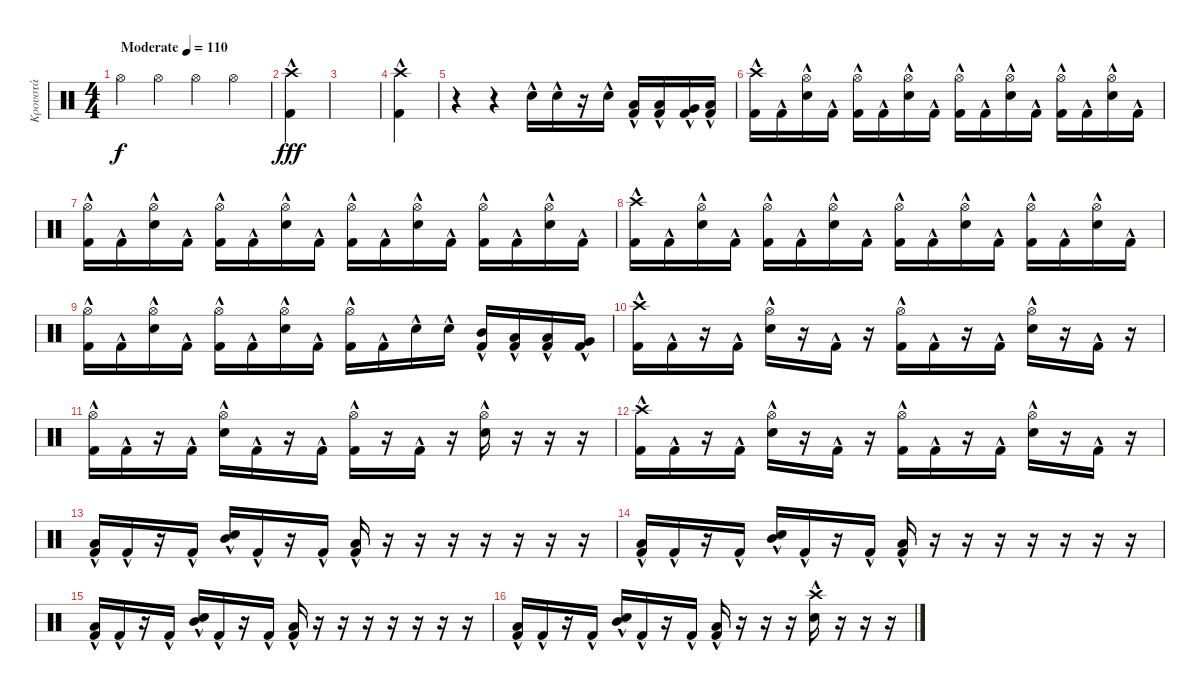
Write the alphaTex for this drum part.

\track ("Κρουστά" "Κρουστά") {instrument percussion}
\staff {score}
\articulation defaults
\ts (4 4)
\tempo (110 "Moderate")
\clef neutral
\ks c "Hi-Hat (open)".4{dy f} "Hi-Hat (open)".4 "Hi-Hat (open)".4 "Hi-Hat (open)".4
|
("Crash high (hit)" "Kick (hit) 2"{hac}).4{dy fff} |
|
("Crash high (hit)" "Kick (hit) 2"{hac}).4 |
r.4 r.4 "Electric Snare (hit)"{hac}.16 "Electric Snare (hit)"{hac}.16 r.16 "Electric Snare (hit)"{hac}.16 ("Low Tom (hit)" "Kick (hit) 2"{hac}).16 ("Low Tom (hit)" "Kick (hit) 2"{hac}).16 ("Very Low Tom (hit)" "Kick (hit) 2"{hac}).16 ("Low Floor Tom (hit)" "Kick (hit) 2"{hac}).16 |
("Crash high (hit)" "Kick (hit) 2"{hac}).16 "Kick (hit) 2"{hac}.16 ("Hi-Hat (open)" "Electric Snare (hit)"{hac}).16 "Kick (hit) 2"{hac}.16 ("Hi-Hat (open)" "Kick (hit) 2"{hac}).16 "Kick (hit) 2"{hac}.16 ("Hi-Hat (open)" "Electric Snare (hit)"{hac}).16 "Kick (hit) 2"{hac}.16 ("Hi-Hat (open)" "Kick (hit) 2"{hac}).16 "Kick (hit) 2"{hac}.16 ("Hi-Hat (open)" "Electric Snare (hit)"{hac}).16 "Kick (hit) 2"{hac}.16 ("Hi-Hat (open)" "Kick (hit) 2"{hac}).16 "Kick (hit) 2"{hac}.16 ("Hi-Hat (open)" "Electric Snare (hit)"{hac}).16 "Kick (hit) 2"{hac}.16 |
("Hi-Hat (open)" "Kick (hit) 2"{hac}).16 "Kick (hit) 2"{hac}.16 ("Hi-Hat (open)" "Electric Snare (hit)"{hac}).16 "Kick (hit) 2"{hac}.16 ("Hi-Hat (open)" "Kick (hit) 2"{hac}).16 "Kick (hit) 2"{hac}.16 ("Hi-Hat (open)" "Electric Snare (hit)"{hac}).16 "Kick (hit) 2"{hac}.16 ("Hi-Hat (open)" "Kick (hit) 2"{hac}).16 "Kick (hit) 2"{hac}.16 ("Hi-Hat (open)" "Electric Snare (hit)"{hac}).16 "Kick (hit) 2"{hac}.16 ("Hi-Hat (open)" "Kick (hit) 2"{hac}).16 "Kick (hit) 2"{hac}.16 ("Hi-Hat (open)" "Electric Snare (hit)"{hac}).16 "Kick (hit) 2"{hac}.16 |
("Crash high (hit)" "Kick (hit) 2"{hac}).16 "Kick (hit) 2"{hac}.16 ("Hi-Hat (open)" "Electric Snare (hit)"{hac}).16 "Kick (hit) 2"{hac}.16 ("Hi-Hat (open)" "Kick (hit) 2"{hac}).16 "Kick (hit) 2"{hac}.16 ("Hi-Hat (open)" "Electric Snare (hit)"{hac}).16 "Kick (hit) 2"{hac}.16 ("Hi-Hat (open)" "Kick (hit) 2"{hac}).16 "Kick (hit) 2"{hac}.16 ("Hi-Hat (open)" "Electric Snare (hit)"{hac}).16 "Kick (hit) 2"{hac}.16 ("Hi-Hat (open)" "Kick (hit) 2"{hac}).16 "Kick (hit) 2"{hac}.16 ("Hi-Hat (open)" "Electric Snare (hit)"{hac}).16 "Kick (hit) 2"{hac}.16 |
("Hi-Hat (open)" "Kick (hit) 2"{hac}).16 "Kick (hit) 2"{hac}.16 ("Hi-Hat (open)" "Electric Snare (hit)"{hac}).16 "Kick (hit) 2"{hac}.16 ("Hi-Hat (open)" "Kick (hit) 2"{hac}).16 "Kick (hit) 2"{hac}.16 ("Hi-Hat (open)" "Electric Snare (hit)"{hac}).16 "Kick (hit) 2"{hac}.16 ("Hi-Hat (open)" "Kick (hit) 2"{hac}).16 "Kick (hit) 2"{hac}.16 "Electric Snare (hit)"{hac}.16 "Electric Snare (hit)"{hac}.16 ("Mid Tom (hit)" "Kick (hit) 2"{hac}).16 ("Low Tom (hit)" "Kick (hit) 2"{hac}).16 ("Low Tom (hit)" "Kick (hit) 2"{hac}).16 ("Very Low Tom (hit)" "Kick (hit) 2"{hac}).16 |
("Crash high (hit)" "Kick (hit) 2"{hac}).16 "Kick (hit) 2"{hac}.16 r.16 "Kick (hit) 2"{hac}.16 ("Hi-Hat (open)" "Electric Snare (hit)"{hac}).16 r.16 "Kick (hit) 2"{hac}.16 r.16 ("Hi-Hat (open)" "Kick (hit) 2"{hac}).16 "Kick (hit) 2"{hac}.16 r.16 "Kick (hit) 2"{hac}.16 ("Hi-Hat (open)" "Electric Snare (hit)"{hac}).16 r.16 "Kick (hit) 2"{hac}.16 r.16 |
("Hi-Hat (open)" "Kick (hit) 2"{hac}).16 "Kick (hit) 2"{hac}.16 r.16 "Kick (hit) 2"{hac}.16 ("Hi-Hat (open)" "Electric Snare (hit)"{hac}).16 "Kick (hit) 2"{hac}.16 r.16 "Kick (hit) 2"{hac}.16 ("Hi-Hat (open)" "Kick (hit) 2"{hac}).16 r.16 "Kick (hit) 2"{hac}.16 r.16 ("Hi-Hat (open)" "Electric Snare (hit)"{hac}).16 r.16 r.16 r.16 |
("Crash high (hit)" "Kick (hit) 2"{hac}).16 "Kick (hit) 2"{hac}.16 r.16 "Kick (hit) 2"{hac}.16 ("Hi-Hat (open)" "Electric Snare (hit)"{hac}).16 r.16 "Kick (hit) 2"{hac}.16 r.16 ("Hi-Hat (open)" "Kick (hit) 2"{hac}).16 "Kick (hit) 2"{hac}.16 r.16 "Kick (hit) 2"{hac}.16 ("Hi-Hat (open)" "Electric Snare (hit)"{hac}).16 r.16 "Kick (hit) 2"{hac}.16 r.16 |
("Low Tom (hit)" "Kick (hit) 2"{hac}).16 "Kick (hit) 2"{hac}.16 r.16 "Kick (hit) 2"{hac}.16 ("Mid Tom (hit)" "Electric Snare (hit)"{hac}).16 "Kick (hit) 2"{hac}.16 r.16 "Kick (hit) 2"{hac}.16 ("Low Tom (hit)" "Kick (hit) 2"{hac}).16 r.16 r.16 r.16 r.16 r.16 r.16 r.16 |
("Low Tom (hit)" "Kick (hit) 2"{hac}).16 "Kick (hit) 2"{hac}.16 r.16 "Kick (hit) 2"{hac}.16 ("Mid Tom (hit)" "Electric Snare (hit)"{hac}).16 "Kick (hit) 2"{hac}.16 r.16 "Kick (hit) 2"{hac}.16 ("Low Tom (hit)" "Kick (hit) 2"{hac}).16 r.16 r.16 r.16 r.16 r.16 r.16 r.16 |
("Low Tom (hit)" "Kick (hit) 2"{hac}).16 "Kick (hit) 2"{hac}.16 r.16 "Kick (hit) 2"{hac}.16 ("Mid Tom (hit)" "Electric Snare (hit)"{hac}).16 "Kick (hit) 2"{hac}.16 r.16 "Kick (hit) 2"{hac}.16 ("Low Tom (hit)" "Kick (hit) 2"{hac}).16 r.16 r.16 r.16 r.16 r.16 r.16 r.16 |
("Low Tom (hit)" "Kick (hit) 2"{hac}).16 "Kick (hit) 2"{hac}.16 r.16 "Kick (hit) 2"{hac}.16 ("Mid Tom (hit)" "Electric Snare (hit)"{hac}).16 "Kick (hit) 2"{hac}.16 r.16 "Kick (hit) 2"{hac}.16 ("Low Tom (hit)" "Kick (hit) 2"{hac}).16 r.16 r.16 r.16 ("Crash high (hit)" "Electric Snare (hit)"{hac}).16 r.16 r.16 r.16
